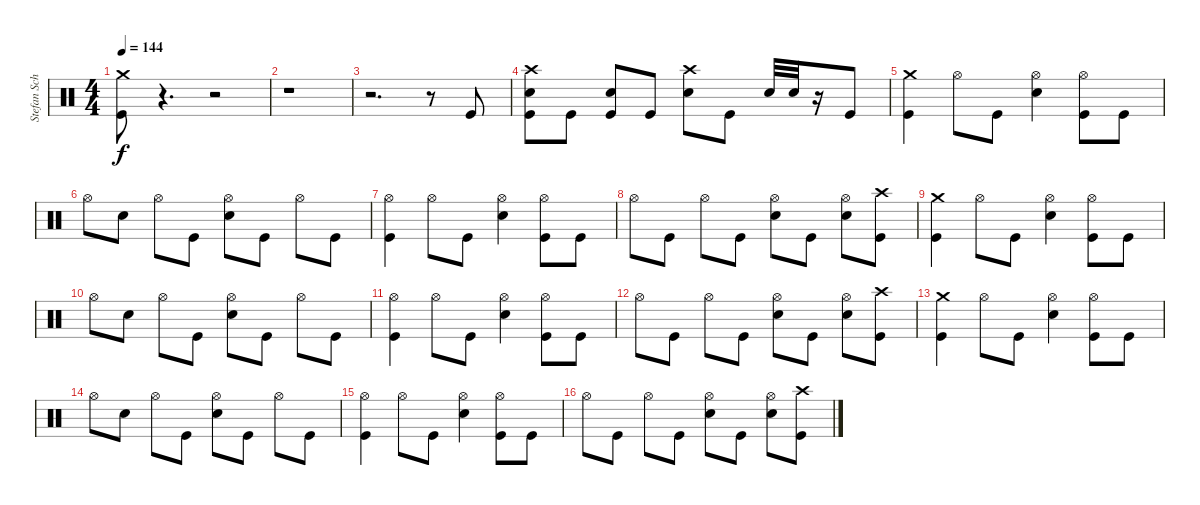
\track ("Stefan Schwarzmann" "Stefan Sch") {instrument percussion}
\staff {score}
\articulation defaults
\ts (4 4)
\tempo 144
\clef neutral
\ks c
("Kick (hit)" "Crash medium (hit)").8{dy f} r.4{d} r.2 |
r.1 |
r.2{d} r.8 "Kick (hit)".8 |
("Snare (hit) 2" "Kick (hit)" "Crash high (hit)").8 "Kick (hit)".8 ("Snare (hit) 2" "Kick (hit)").8 "Kick (hit)".8 ("Snare (hit) 2" "Crash high (hit)").8 "Kick (hit)".8 "Snare (hit) 2".32 "Snare (hit) 2".32 r.16 "Kick (hit)".8 |
("Kick (hit)" "Crash medium (hit)").4 "Hi-Hat (open)".8 "Kick (hit)".8 ("Snare (hit) 2" "Hi-Hat (open)").4 ("Kick (hit)" "Hi-Hat (open)").8 "Kick (hit)".8 |
"Hi-Hat (open)".8 "Snare (hit) 2".8 "Hi-Hat (open)".8 "Kick (hit)".8 ("Snare (hit) 2" "Hi-Hat (open)").8 "Kick (hit)".8 "Hi-Hat (open)".8 "Kick (hit)".8 |
("Kick (hit)" "Hi-Hat (open)").4 "Hi-Hat (open)".8 "Kick (hit)".8 ("Snare (hit) 2" "Hi-Hat (open)").4 ("Kick (hit)" "Hi-Hat (open)").8 "Kick (hit)".8 |
"Hi-Hat (open)".8 "Kick (hit)".8 "Hi-Hat (open)".8 "Kick (hit)".8 ("Hi-Hat (open)" "Snare (hit) 2").8 "Kick (hit)".8 ("Snare (hit) 2" "Hi-Hat (open)").8 ("Kick (hit)" "Crash high (hit)").8 |
("Kick (hit)" "Crash medium (hit)").4 "Hi-Hat (open)".8 "Kick (hit)".8 ("Snare (hit) 2" "Hi-Hat (open)").4 ("Kick (hit)" "Hi-Hat (open)").8 "Kick (hit)".8 |
"Hi-Hat (open)".8 "Snare (hit) 2".8 "Hi-Hat (open)".8 "Kick (hit)".8 ("Snare (hit) 2" "Hi-Hat (open)").8 "Kick (hit)".8 "Hi-Hat (open)".8 "Kick (hit)".8 |
("Kick (hit)" "Hi-Hat (open)").4 "Hi-Hat (open)".8 "Kick (hit)".8 ("Hi-Hat (open)" "Snare (hit) 2").4 ("Kick (hit)" "Hi-Hat (open)").8 "Kick (hit)".8 |
"Hi-Hat (open)".8 "Kick (hit)".8 "Hi-Hat (open)".8 "Kick (hit)".8 ("Hi-Hat (open)" "Snare (hit) 2").8 "Kick (hit)".8 ("Snare (hit) 2" "Hi-Hat (open)").8 ("Kick (hit)" "Crash high (hit)").8 |
("Kick (hit)" "Crash medium (hit)").4 "Hi-Hat (open)".8 "Kick (hit)".8 ("Snare (hit) 2" "Hi-Hat (open)").4 ("Kick (hit)" "Hi-Hat (open)").8 "Kick (hit)".8 |
"Hi-Hat (open)".8 "Snare (hit) 2".8 "Hi-Hat (open)".8 "Kick (hit)".8 ("Snare (hit) 2" "Hi-Hat (open)").8 "Kick (hit)".8 "Hi-Hat (open)".8 "Kick (hit)".8 |
("Kick (hit)" "Hi-Hat (open)").4 "Hi-Hat (open)".8 "Kick (hit)".8 ("Hi-Hat (open)" "Snare (hit) 2").4 ("Kick (hit)" "Hi-Hat (open)").8 "Kick (hit)".8 |
"Hi-Hat (open)".8 "Kick (hit)".8 "Hi-Hat (open)".8 "Kick (hit)".8 ("Hi-Hat (open)" "Snare (hit) 2").8 "Kick (hit)".8 ("Snare (hit) 2" "Hi-Hat (open)").8 ("Kick (hit)" "Crash high (hit)").8
